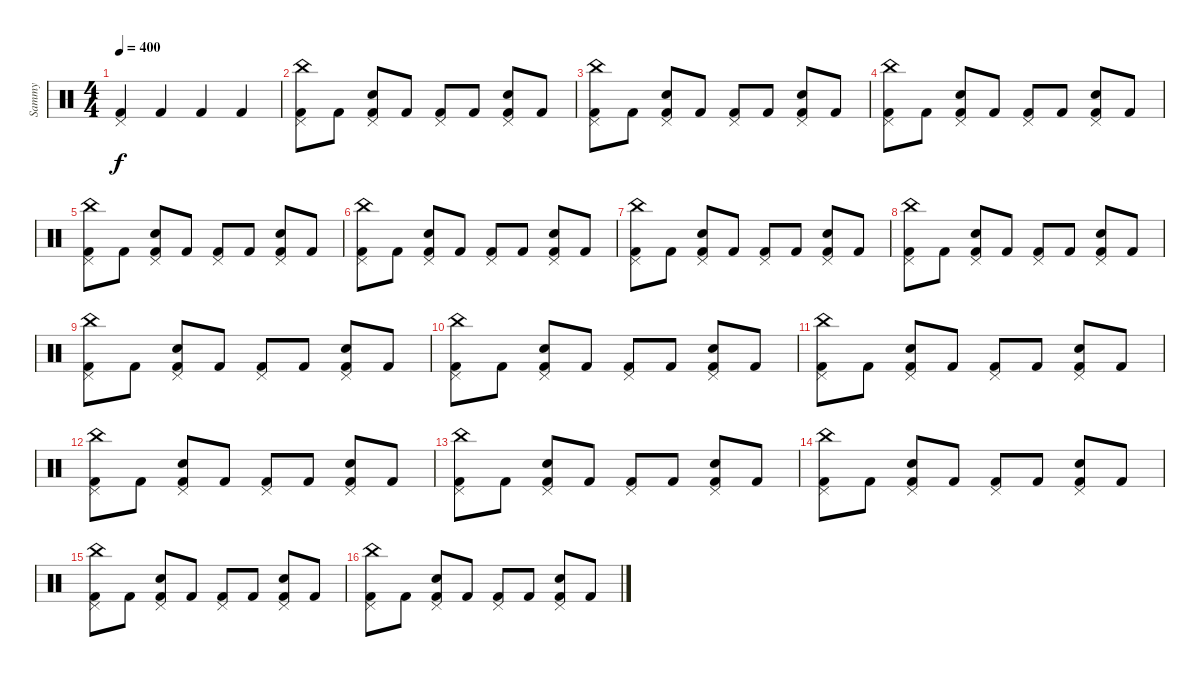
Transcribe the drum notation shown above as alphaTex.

\track ("Sammy" "Sammy") {instrument percussion}
\staff {score}
\articulation defaults
\ts (4 4)
\tempo 400
\clef neutral
\ks c
("Pedal Hi-Hat (hit)" "Kick (hit) 2").4{dy f} "Kick (hit) 2".4 "Kick (hit) 2".4 "Kick (hit) 2".4 |
("China (hit)" "Pedal Hi-Hat (hit)" "Kick (hit) 2").8 "Kick (hit) 2".8 ("Electric Snare (hit)" "Pedal Hi-Hat (hit)" "Kick (hit) 2").8 "Kick (hit) 2".8 ("Pedal Hi-Hat (hit)" "Kick (hit) 2").8 "Kick (hit) 2".8 ("Electric Snare (hit)" "Pedal Hi-Hat (hit)" "Kick (hit) 2").8 "Kick (hit) 2".8 |
("China (hit)" "Pedal Hi-Hat (hit)" "Kick (hit) 2").8 "Kick (hit) 2".8 ("Electric Snare (hit)" "Pedal Hi-Hat (hit)" "Kick (hit) 2").8 "Kick (hit) 2".8 ("Pedal Hi-Hat (hit)" "Kick (hit) 2").8 "Kick (hit) 2".8 ("Electric Snare (hit)" "Pedal Hi-Hat (hit)" "Kick (hit) 2").8 "Kick (hit) 2".8 |
("China (hit)" "Pedal Hi-Hat (hit)" "Kick (hit) 2").8 "Kick (hit) 2".8 ("Electric Snare (hit)" "Pedal Hi-Hat (hit)" "Kick (hit) 2").8 "Kick (hit) 2".8 ("Pedal Hi-Hat (hit)" "Kick (hit) 2").8 "Kick (hit) 2".8 ("Electric Snare (hit)" "Pedal Hi-Hat (hit)" "Kick (hit) 2").8 "Kick (hit) 2".8 |
("China (hit)" "Pedal Hi-Hat (hit)" "Kick (hit) 2").8 "Kick (hit) 2".8 ("Electric Snare (hit)" "Pedal Hi-Hat (hit)" "Kick (hit) 2").8 "Kick (hit) 2".8 ("Pedal Hi-Hat (hit)" "Kick (hit) 2").8 "Kick (hit) 2".8 ("Electric Snare (hit)" "Pedal Hi-Hat (hit)" "Kick (hit) 2").8 "Kick (hit) 2".8 |
("China (hit)" "Pedal Hi-Hat (hit)" "Kick (hit) 2").8 "Kick (hit) 2".8 ("Electric Snare (hit)" "Pedal Hi-Hat (hit)" "Kick (hit) 2").8 "Kick (hit) 2".8 ("Pedal Hi-Hat (hit)" "Kick (hit) 2").8 "Kick (hit) 2".8 ("Electric Snare (hit)" "Pedal Hi-Hat (hit)" "Kick (hit) 2").8 "Kick (hit) 2".8 |
("China (hit)" "Pedal Hi-Hat (hit)" "Kick (hit) 2").8 "Kick (hit) 2".8 ("Electric Snare (hit)" "Pedal Hi-Hat (hit)" "Kick (hit) 2").8 "Kick (hit) 2".8 ("Pedal Hi-Hat (hit)" "Kick (hit) 2").8 "Kick (hit) 2".8 ("Electric Snare (hit)" "Pedal Hi-Hat (hit)" "Kick (hit) 2").8 "Kick (hit) 2".8 |
("China (hit)" "Pedal Hi-Hat (hit)" "Kick (hit) 2").8 "Kick (hit) 2".8 ("Electric Snare (hit)" "Pedal Hi-Hat (hit)" "Kick (hit) 2").8 "Kick (hit) 2".8 ("Pedal Hi-Hat (hit)" "Kick (hit) 2").8 "Kick (hit) 2".8 ("Electric Snare (hit)" "Pedal Hi-Hat (hit)" "Kick (hit) 2").8 "Kick (hit) 2".8 |
("China (hit)" "Pedal Hi-Hat (hit)" "Kick (hit) 2").8 "Kick (hit) 2".8 ("Electric Snare (hit)" "Pedal Hi-Hat (hit)" "Kick (hit) 2").8 "Kick (hit) 2".8 ("Pedal Hi-Hat (hit)" "Kick (hit) 2").8 "Kick (hit) 2".8 ("Electric Snare (hit)" "Pedal Hi-Hat (hit)" "Kick (hit) 2").8 "Kick (hit) 2".8 |
("China (hit)" "Pedal Hi-Hat (hit)" "Kick (hit) 2").8 "Kick (hit) 2".8 ("Electric Snare (hit)" "Pedal Hi-Hat (hit)" "Kick (hit) 2").8 "Kick (hit) 2".8 ("Pedal Hi-Hat (hit)" "Kick (hit) 2").8 "Kick (hit) 2".8 ("Electric Snare (hit)" "Pedal Hi-Hat (hit)" "Kick (hit) 2").8 "Kick (hit) 2".8 |
("China (hit)" "Pedal Hi-Hat (hit)" "Kick (hit) 2").8 "Kick (hit) 2".8 ("Electric Snare (hit)" "Pedal Hi-Hat (hit)" "Kick (hit) 2").8 "Kick (hit) 2".8 ("Pedal Hi-Hat (hit)" "Kick (hit) 2").8 "Kick (hit) 2".8 ("Electric Snare (hit)" "Pedal Hi-Hat (hit)" "Kick (hit) 2").8 "Kick (hit) 2".8 |
("China (hit)" "Pedal Hi-Hat (hit)" "Kick (hit) 2").8 "Kick (hit) 2".8 ("Electric Snare (hit)" "Pedal Hi-Hat (hit)" "Kick (hit) 2").8 "Kick (hit) 2".8 ("Pedal Hi-Hat (hit)" "Kick (hit) 2").8 "Kick (hit) 2".8 ("Electric Snare (hit)" "Pedal Hi-Hat (hit)" "Kick (hit) 2").8 "Kick (hit) 2".8 |
("China (hit)" "Pedal Hi-Hat (hit)" "Kick (hit) 2").8 "Kick (hit) 2".8 ("Electric Snare (hit)" "Pedal Hi-Hat (hit)" "Kick (hit) 2").8 "Kick (hit) 2".8 ("Pedal Hi-Hat (hit)" "Kick (hit) 2").8 "Kick (hit) 2".8 ("Electric Snare (hit)" "Pedal Hi-Hat (hit)" "Kick (hit) 2").8 "Kick (hit) 2".8 |
("China (hit)" "Pedal Hi-Hat (hit)" "Kick (hit) 2").8 "Kick (hit) 2".8 ("Electric Snare (hit)" "Pedal Hi-Hat (hit)" "Kick (hit) 2").8 "Kick (hit) 2".8 ("Pedal Hi-Hat (hit)" "Kick (hit) 2").8 "Kick (hit) 2".8 ("Electric Snare (hit)" "Pedal Hi-Hat (hit)" "Kick (hit) 2").8 "Kick (hit) 2".8 |
("China (hit)" "Pedal Hi-Hat (hit)" "Kick (hit) 2").8 "Kick (hit) 2".8 ("Electric Snare (hit)" "Pedal Hi-Hat (hit)" "Kick (hit) 2").8 "Kick (hit) 2".8 ("Pedal Hi-Hat (hit)" "Kick (hit) 2").8 "Kick (hit) 2".8 ("Electric Snare (hit)" "Pedal Hi-Hat (hit)" "Kick (hit) 2").8 "Kick (hit) 2".8 |
("China (hit)" "Pedal Hi-Hat (hit)" "Kick (hit) 2").8 "Kick (hit) 2".8 ("Electric Snare (hit)" "Pedal Hi-Hat (hit)" "Kick (hit) 2").8 "Kick (hit) 2".8 ("Pedal Hi-Hat (hit)" "Kick (hit) 2").8 "Kick (hit) 2".8 ("Electric Snare (hit)" "Pedal Hi-Hat (hit)" "Kick (hit) 2").8 "Kick (hit) 2".8
